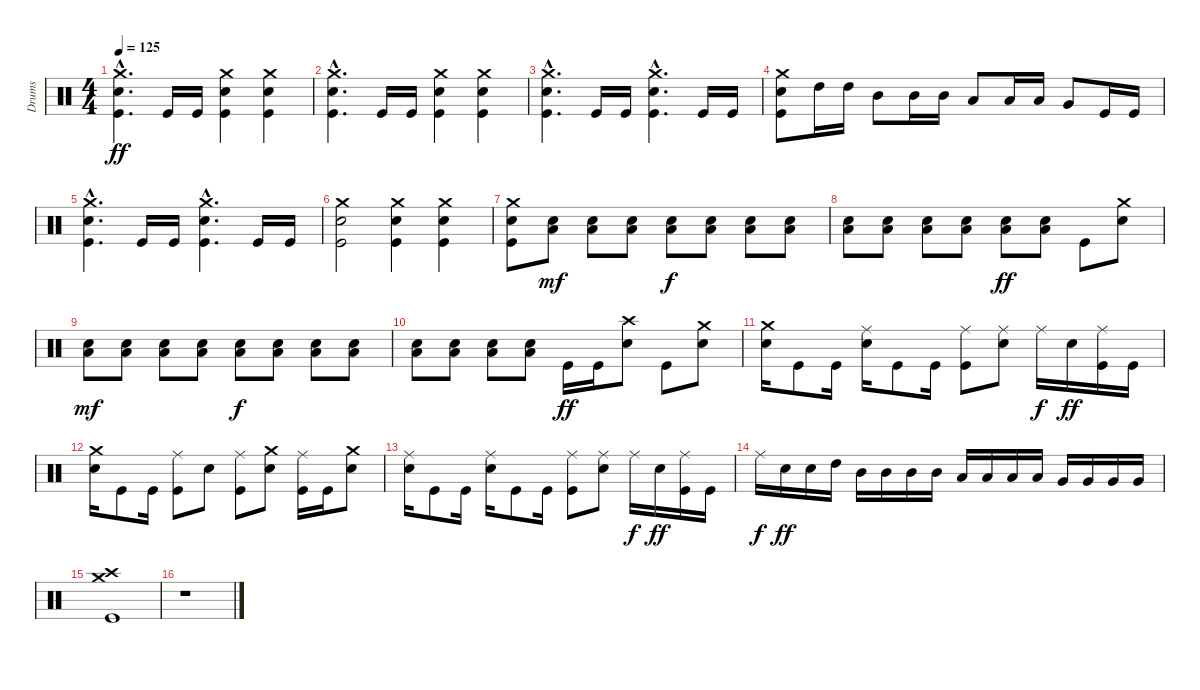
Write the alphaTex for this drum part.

\track ("Drums" "Drums") {instrument percussion}
\staff {score}
\articulation defaults
\ts (4 4)
\tempo 125
\clef neutral
\ks c
("Crash medium (hit)"{hac} "Electric Snare (hit)"{hac} "Kick (hit)"{hac}).4{d dy ff} "Kick (hit)".16 "Kick (hit)".16 ("Crash medium (hit)" "Electric Snare (hit)" "Kick (hit)").4 ("Crash medium (hit)" "Electric Snare (hit)" "Kick (hit)").4 |
("Crash medium (hit)"{hac} "Electric Snare (hit)"{hac} "Kick (hit)"{hac}).4{d} "Kick (hit)".16 "Kick (hit)".16 ("Crash medium (hit)" "Electric Snare (hit)" "Kick (hit)").4 ("Crash medium (hit)" "Electric Snare (hit)" "Kick (hit)").4 |
("Crash medium (hit)"{hac} "Electric Snare (hit)"{hac} "Kick (hit)"{hac}).4{d} "Kick (hit)".16 "Kick (hit)".16 ("Crash medium (hit)"{hac} "Electric Snare (hit)"{hac} "Kick (hit)"{hac}).4{d} "Kick (hit)".16 "Kick (hit)".16 |
("Crash medium (hit)" "Electric Snare (hit)" "Kick (hit)").8 "High Tom (hit)".16 "High Tom (hit)".16 "Mid Tom (hit)".8 "Mid Tom (hit)".16 "Mid Tom (hit)".16 "Low Tom (hit)".8 "Low Tom (hit)".16 "Low Tom (hit)".16 "Very Low Tom (hit)".8 "Kick (hit)".16 "Kick (hit)".16 |
("Crash medium (hit)"{hac} "Electric Snare (hit)"{hac} "Kick (hit)"{hac}).4{d} "Kick (hit)".16 "Kick (hit)".16 ("Crash medium (hit)"{hac} "Electric Snare (hit)"{hac} "Kick (hit)"{hac}).4{d} "Kick (hit)".16 "Kick (hit)".16 |
("Crash medium (hit)" "Electric Snare (hit)" "Kick (hit)").2 ("Crash medium (hit)" "Electric Snare (hit)" "Kick (hit)").4 ("Crash medium (hit)" "Electric Snare (hit)" "Kick (hit)").4 |
("Crash medium (hit)" "Electric Snare (hit)" "Kick (hit)").8 ("Low Floor Tom (hit)" "Electric Snare (hit)").8{dy mf} ("Low Floor Tom (hit)" "Electric Snare (hit)").8 ("Low Floor Tom (hit)" "Electric Snare (hit)").8 ("Low Floor Tom (hit)" "Electric Snare (hit)").8{dy f} ("Low Floor Tom (hit)" "Electric Snare (hit)").8 ("Low Floor Tom (hit)" "Electric Snare (hit)").8 ("Low Floor Tom (hit)" "Electric Snare (hit)").8 |
("Low Floor Tom (hit)" "Electric Snare (hit)").8 ("Low Floor Tom (hit)" "Electric Snare (hit)").8 ("Low Floor Tom (hit)" "Electric Snare (hit)").8 ("Low Floor Tom (hit)" "Electric Snare (hit)").8 ("Low Floor Tom (hit)" "Electric Snare (hit)").8{dy ff} ("Low Floor Tom (hit)" "Electric Snare (hit)").8 "Kick (hit)".8 ("Crash medium (hit)" "Electric Snare (hit)").8 |
("Low Floor Tom (hit)" "Electric Snare (hit)").8{dy mf} ("Low Floor Tom (hit)" "Electric Snare (hit)").8 ("Low Floor Tom (hit)" "Electric Snare (hit)").8 ("Low Floor Tom (hit)" "Electric Snare (hit)").8 ("Low Floor Tom (hit)" "Electric Snare (hit)").8{dy f} ("Low Floor Tom (hit)" "Electric Snare (hit)").8 ("Low Floor Tom (hit)" "Electric Snare (hit)").8 ("Low Floor Tom (hit)" "Electric Snare (hit)").8 |
("Low Floor Tom (hit)" "Electric Snare (hit)").8 ("Low Floor Tom (hit)" "Electric Snare (hit)").8 ("Low Floor Tom (hit)" "Electric Snare (hit)").8 ("Low Floor Tom (hit)" "Electric Snare (hit)").8 "Kick (hit)".16{dy ff} "Kick (hit)".16 ("Crash high (hit)" "Electric Snare (hit)").8 "Kick (hit)".8 ("Crash medium (hit)" "Electric Snare (hit)").8 |
("Crash medium (hit)" "Electric Snare (hit)").16 "Kick (hit)".8 "Kick (hit)".16 ("Ride (middle)" "Electric Snare (hit)").16 "Kick (hit)".8 "Kick (hit)".16 ("Ride (middle)" "Kick (hit)").8 ("Ride (middle)" "Electric Snare (hit)").8 "Ride (middle)".16{dy f} "Electric Snare (hit)".16{dy ff} ("Ride (middle)" "Kick (hit)").16 "Kick (hit)".16 |
("Crash medium (hit)" "Electric Snare (hit)").16 "Kick (hit)".8 "Kick (hit)".16 ("Ride (middle)" "Kick (hit)").8 "Electric Snare (hit)".8 ("Ride (middle)" "Kick (hit)").8 ("Crash medium (hit)" "Electric Snare (hit)").8 ("Ride (middle)" "Kick (hit)").16 "Kick (hit)".16 ("Crash medium (hit)" "Electric Snare (hit)").8 |
("Ride (middle)" "Electric Snare (hit)").16 "Kick (hit)".8 "Kick (hit)".16 ("Ride (middle)" "Electric Snare (hit)").16 "Kick (hit)".8 "Kick (hit)".16 ("Ride (middle)" "Kick (hit)").8 ("Ride (middle)" "Electric Snare (hit)").8 "Ride (middle)".16{dy f} "Electric Snare (hit)".16{dy ff} ("Ride (middle)" "Kick (hit)").16 "Kick (hit)".16 |
"Ride (middle)".16{dy f} "Electric Snare (hit)".16{dy ff} "Electric Snare (hit)".16 "High Tom (hit)".16 "Mid Tom (hit)".16 "Mid Tom (hit)".16 "Mid Tom (hit)".16 "Mid Tom (hit)".16 "Low Tom (hit)".16 "Low Tom (hit)".16 "Low Tom (hit)".16 "Low Tom (hit)".16 "Very Low Tom (hit)".16 "Very Low Tom (hit)".16 "Very Low Tom (hit)".16 "Very Low Tom (hit)".16 |
("Crash medium (hit)" "Crash high (hit)" "Kick (hit)").1 |
r.1
